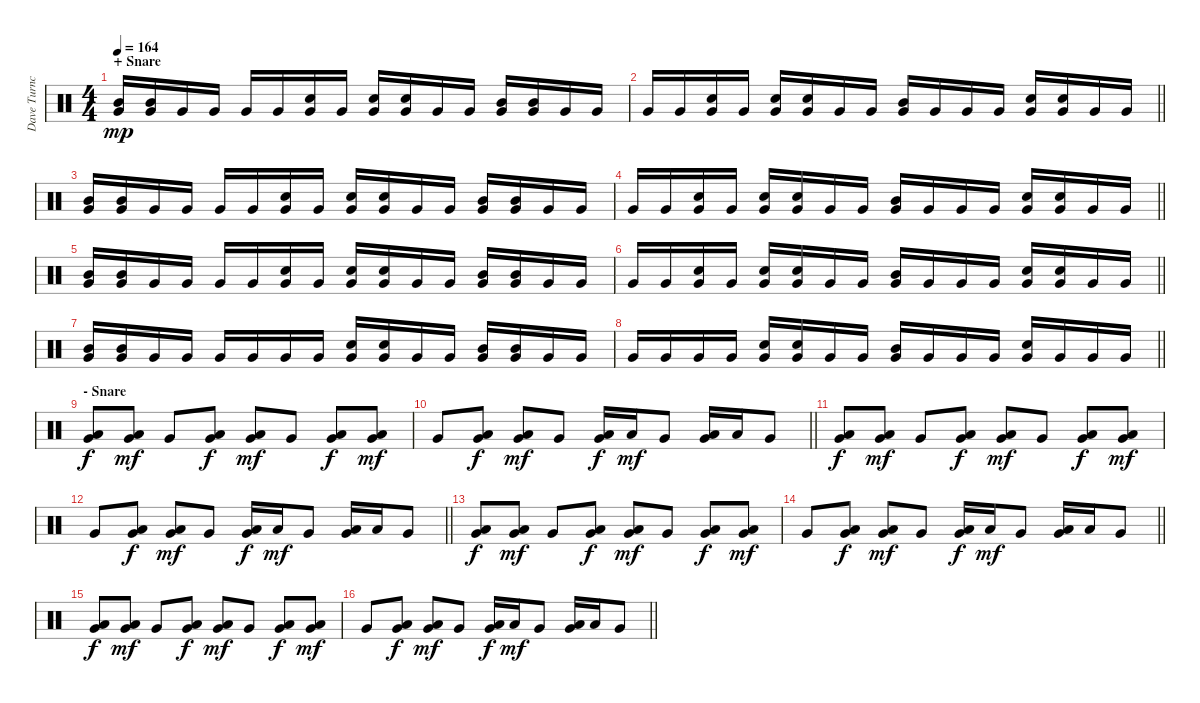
\track ("Dave Turncrantz" "Dave Turnc") {instrument percussion}
\staff {score}
\articulation defaults
\ts (4 4)
\section ("" "+ Snare")
\tempo 164
\clef neutral
\ks c
("Mid Tom (hit)" "Very Low Tom (hit)").16{dy mp} ("Mid Tom (hit)" "Very Low Tom (hit)").16 "Very Low Tom (hit)".16 "Very Low Tom (hit)".16 "Very Low Tom (hit)".16 "Very Low Tom (hit)".16 ("Electric Snare (hit)" "Very Low Tom (hit)").16 "Very Low Tom (hit)".16 ("Electric Snare (hit)" "Very Low Tom (hit)").16 ("Electric Snare (hit)" "Very Low Tom (hit)").16 "Very Low Tom (hit)".16 "Very Low Tom (hit)".16 ("Mid Tom (hit)" "Very Low Tom (hit)").16 ("Mid Tom (hit)" "Very Low Tom (hit)").16 "Very Low Tom (hit)".16 "Very Low Tom (hit)".16 |
\barLineRight lightlight "Very Low Tom (hit)".16 "Very Low Tom (hit)".16
("Electric Snare (hit)" "Very Low Tom (hit)").16 "Very Low Tom (hit)".16 ("Electric Snare (hit)" "Very Low Tom (hit)").16 ("Electric Snare (hit)" "Very Low Tom (hit)").16 "Very Low Tom (hit)".16 "Very Low Tom (hit)".16 ("Mid Tom (hit)" "Very Low Tom (hit)").16 "Very Low Tom (hit)".16 "Very Low Tom (hit)".16 "Very Low Tom (hit)".16 ("Electric Snare (hit)" "Very Low Tom (hit)").16 ("Electric Snare (hit)" "Very Low Tom (hit)").16 "Very Low Tom (hit)".16 "Very Low Tom (hit)".16 |
\section ("" "")
("Mid Tom (hit)" "Very Low Tom (hit)").16 ("Mid Tom (hit)" "Very Low Tom (hit)").16 "Very Low Tom (hit)".16 "Very Low Tom (hit)".16 "Very Low Tom (hit)".16 "Very Low Tom (hit)".16 ("Electric Snare (hit)" "Very Low Tom (hit)").16 "Very Low Tom (hit)".16 ("Electric Snare (hit)" "Very Low Tom (hit)").16 ("Electric Snare (hit)" "Very Low Tom (hit)").16 "Very Low Tom (hit)".16 "Very Low Tom (hit)".16 ("Mid Tom (hit)" "Very Low Tom (hit)").16 ("Mid Tom (hit)" "Very Low Tom (hit)").16 "Very Low Tom (hit)".16 "Very Low Tom (hit)".16 |
\barLineRight lightlight "Very Low Tom (hit)".16 "Very Low Tom (hit)".16
("Electric Snare (hit)" "Very Low Tom (hit)").16 "Very Low Tom (hit)".16 ("Electric Snare (hit)" "Very Low Tom (hit)").16 ("Electric Snare (hit)" "Very Low Tom (hit)").16 "Very Low Tom (hit)".16 "Very Low Tom (hit)".16 ("Mid Tom (hit)" "Very Low Tom (hit)").16 "Very Low Tom (hit)".16 "Very Low Tom (hit)".16 "Very Low Tom (hit)".16 ("Electric Snare (hit)" "Very Low Tom (hit)").16 ("Electric Snare (hit)" "Very Low Tom (hit)").16 "Very Low Tom (hit)".16 "Very Low Tom (hit)".16 |
\section ("" "")
("Mid Tom (hit)" "Very Low Tom (hit)").16 ("Mid Tom (hit)" "Very Low Tom (hit)").16 "Very Low Tom (hit)".16 "Very Low Tom (hit)".16 "Very Low Tom (hit)".16 "Very Low Tom (hit)".16 ("Electric Snare (hit)" "Very Low Tom (hit)").16 "Very Low Tom (hit)".16 ("Electric Snare (hit)" "Very Low Tom (hit)").16 ("Electric Snare (hit)" "Very Low Tom (hit)").16 "Very Low Tom (hit)".16 "Very Low Tom (hit)".16 ("Mid Tom (hit)" "Very Low Tom (hit)").16 ("Mid Tom (hit)" "Very Low Tom (hit)").16 "Very Low Tom (hit)".16 "Very Low Tom (hit)".16 |
\barLineRight lightlight "Very Low Tom (hit)".16 "Very Low Tom (hit)".16
("Electric Snare (hit)" "Very Low Tom (hit)").16 "Very Low Tom (hit)".16 ("Electric Snare (hit)" "Very Low Tom (hit)").16 ("Electric Snare (hit)" "Very Low Tom (hit)").16 "Very Low Tom (hit)".16 "Very Low Tom (hit)".16 ("Mid Tom (hit)" "Very Low Tom (hit)").16 "Very Low Tom (hit)".16 "Very Low Tom (hit)".16 "Very Low Tom (hit)".16 ("Electric Snare (hit)" "Very Low Tom (hit)").16 ("Electric Snare (hit)" "Very Low Tom (hit)").16 "Very Low Tom (hit)".16 "Very Low Tom (hit)".16 |
\section ("" "")
("Mid Tom (hit)" "Very Low Tom (hit)").16 ("Mid Tom (hit)" "Very Low Tom (hit)").16 "Very Low Tom (hit)".16 "Very Low Tom (hit)".16 "Very Low Tom (hit)".16 "Very Low Tom (hit)".16 "Very Low Tom (hit)".16 "Very Low Tom (hit)".16 ("Electric Snare (hit)" "Very Low Tom (hit)").16 ("Electric Snare (hit)" "Very Low Tom (hit)").16 "Very Low Tom (hit)".16 "Very Low Tom (hit)".16 ("Mid Tom (hit)" "Very Low Tom (hit)").16 ("Mid Tom (hit)" "Very Low Tom (hit)").16 "Very Low Tom (hit)".16 "Very Low Tom (hit)".16 |
\barLineRight lightlight "Very Low Tom (hit)".16 "Very Low Tom (hit)".16 "Very Low Tom (hit)".16 "Very Low Tom (hit)".16
("Electric Snare (hit)" "Very Low Tom (hit)").16 ("Electric Snare (hit)" "Very Low Tom (hit)").16 "Very Low Tom (hit)".16 "Very Low Tom (hit)".16 ("Mid Tom (hit)" "Very Low Tom (hit)").16 "Very Low Tom (hit)".16 "Very Low Tom (hit)".16 "Very Low Tom (hit)".16 ("Electric Snare (hit)" "Very Low Tom (hit)").16 "Very Low Tom (hit)".16 "Very Low Tom (hit)".16 "Very Low Tom (hit)".16 |
\section ("" "- Snare")
("Low Tom (hit)" "Very Low Tom (hit)").8{dy f} ("Low Tom (hit)" "Very Low Tom (hit)").8{dy mf} "Very Low Tom (hit)".8 ("Low Tom (hit)" "Very Low Tom (hit)").8{dy f} ("Low Tom (hit)" "Very Low Tom (hit)").8{dy mf} "Very Low Tom (hit)".8 ("Low Tom (hit)" "Very Low Tom (hit)").8{dy f} ("Low Tom (hit)" "Very Low Tom (hit)").8{dy mf} |
\barLineRight lightlight "Very Low Tom (hit)".8
("Low Tom (hit)" "Very Low Tom (hit)").8{dy f} ("Low Tom (hit)" "Very Low Tom (hit)").8{dy mf} "Very Low Tom (hit)".8 ("Low Tom (hit)" "Very Low Tom (hit)").16{dy f} "Low Tom (hit)".16{dy mf} "Very Low Tom (hit)".8 ("Low Tom (hit)" "Very Low Tom (hit)").16 "Low Tom (hit)".16 "Very Low Tom (hit)".8 |
\section ("" "")
("Low Tom (hit)" "Very Low Tom (hit)").8{dy f} ("Low Tom (hit)" "Very Low Tom (hit)").8{dy mf} "Very Low Tom (hit)".8 ("Low Tom (hit)" "Very Low Tom (hit)").8{dy f} ("Low Tom (hit)" "Very Low Tom (hit)").8{dy mf} "Very Low Tom (hit)".8 ("Low Tom (hit)" "Very Low Tom (hit)").8{dy f} ("Low Tom (hit)" "Very Low Tom (hit)").8{dy mf} |
\barLineRight lightlight "Very Low Tom (hit)".8
("Low Tom (hit)" "Very Low Tom (hit)").8{dy f} ("Low Tom (hit)" "Very Low Tom (hit)").8{dy mf} "Very Low Tom (hit)".8 ("Low Tom (hit)" "Very Low Tom (hit)").16{dy f} "Low Tom (hit)".16{dy mf} "Very Low Tom (hit)".8 ("Low Tom (hit)" "Very Low Tom (hit)").16 "Low Tom (hit)".16 "Very Low Tom (hit)".8 |
\section ("" "")
("Low Tom (hit)" "Very Low Tom (hit)").8{dy f} ("Low Tom (hit)" "Very Low Tom (hit)").8{dy mf} "Very Low Tom (hit)".8 ("Low Tom (hit)" "Very Low Tom (hit)").8{dy f} ("Low Tom (hit)" "Very Low Tom (hit)").8{dy mf} "Very Low Tom (hit)".8 ("Low Tom (hit)" "Very Low Tom (hit)").8{dy f} ("Low Tom (hit)" "Very Low Tom (hit)").8{dy mf} |
\barLineRight lightlight "Very Low Tom (hit)".8
("Low Tom (hit)" "Very Low Tom (hit)").8{dy f} ("Low Tom (hit)" "Very Low Tom (hit)").8{dy mf} "Very Low Tom (hit)".8 ("Low Tom (hit)" "Very Low Tom (hit)").16{dy f} "Low Tom (hit)".16{dy mf} "Very Low Tom (hit)".8 ("Low Tom (hit)" "Very Low Tom (hit)").16 "Low Tom (hit)".16 "Very Low Tom (hit)".8 |
\section ("" "")
("Low Tom (hit)" "Very Low Tom (hit)").8{dy f} ("Low Tom (hit)" "Very Low Tom (hit)").8{dy mf} "Very Low Tom (hit)".8 ("Low Tom (hit)" "Very Low Tom (hit)").8{dy f} ("Low Tom (hit)" "Very Low Tom (hit)").8{dy mf} "Very Low Tom (hit)".8 ("Low Tom (hit)" "Very Low Tom (hit)").8{dy f} ("Low Tom (hit)" "Very Low Tom (hit)").8{dy mf} |
\barLineRight lightlight "Very Low Tom (hit)".8
("Low Tom (hit)" "Very Low Tom (hit)").8{dy f} ("Low Tom (hit)" "Very Low Tom (hit)").8{dy mf} "Very Low Tom (hit)".8 ("Low Tom (hit)" "Very Low Tom (hit)").16{dy f} "Low Tom (hit)".16{dy mf} "Very Low Tom (hit)".8 ("Low Tom (hit)" "Very Low Tom (hit)").16 "Low Tom (hit)".16 "Very Low Tom (hit)".8
